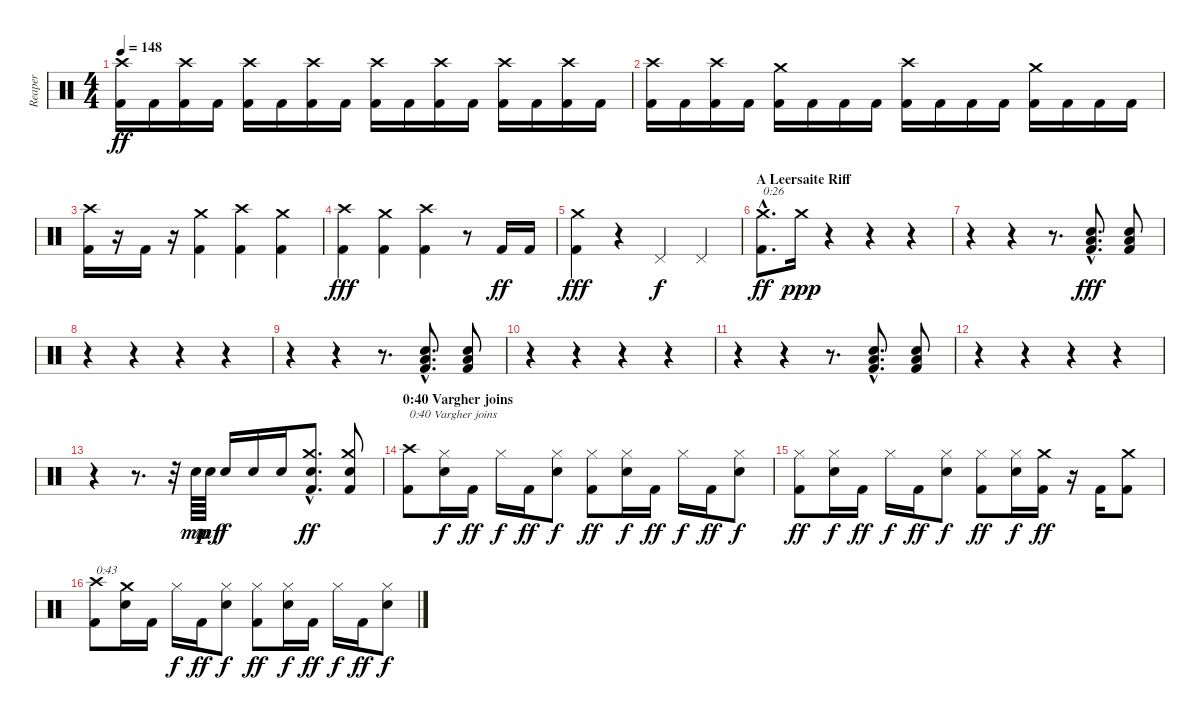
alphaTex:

\track ("Reaper" "Reaper") {instrument percussion}
\staff {score}
\articulation defaults
\ts (4 4)
\tempo 148
\clef neutral
\ks c
("Kick (hit) 2" "Crash high (hit)").16{dy ff} "Kick (hit) 2".16 ("Kick (hit) 2" "Crash high (hit)").16 "Kick (hit) 2".16 ("Kick (hit) 2" "Crash high (hit)").16{volume 13} "Kick (hit) 2".16 ("Kick (hit) 2" "Crash high (hit)").16 "Kick (hit) 2".16 ("Kick (hit) 2" "Crash high (hit)").16 "Kick (hit) 2".16 ("Kick (hit) 2" "Crash high (hit)").16 "Kick (hit) 2".16 ("Kick (hit) 2" "Crash high (hit)").16 "Kick (hit) 2".16 ("Kick (hit) 2" "Crash high (hit)").16 "Kick (hit) 2".16 |
("Kick (hit) 2" "Crash high (hit)").16 "Kick (hit) 2".16 ("Kick (hit) 2" "Crash high (hit)").16 "Kick (hit) 2".16 ("Kick (hit) 2" "Crash medium (hit)").16 "Kick (hit) 2".16 "Kick (hit) 2".16 "Kick (hit) 2".16 ("Kick (hit) 2" "Crash high (hit)").16 "Kick (hit) 2".16 "Kick (hit) 2".16 "Kick (hit) 2".16 ("Kick (hit) 2" "Crash medium (hit)").16 "Kick (hit) 2".16 "Kick (hit) 2".16 "Kick (hit) 2".16 |
("Kick (hit) 2" "Crash high (hit)").16 r.16 "Kick (hit) 2".16 r.16 ("Kick (hit) 2" "Crash medium (hit)").4 ("Kick (hit) 2" "Crash high (hit)").4 ("Kick (hit) 2" "Crash medium (hit)").4 |
("Kick (hit) 2" "Crash high (hit)").4{dy fff} ("Kick (hit) 2" "Crash medium (hit)").4 ("Kick (hit) 2" "Crash high (hit)").4 r.8 "Kick (hit) 2".16{dy ff} "Kick (hit) 2".16 |
("Kick (hit) 2" "Crash medium (hit)").4{dy fff} r.4 "Pedal Hi-Hat (hit)".4{dy f} "Pedal Hi-Hat (hit)".4 |
\section ("" "A Leersaite Riff ")
("Kick (hit) 2"{hac} "Crash medium (hit)"{hac}).8{d txt "0:26" dy ff} "Crash medium (hit)".16{dy ppp} r.4 r.4 r.4 |
r.4 r.4 r.8{d} ("Kick (hit) 2"{hac} "Low Tom (hit)"{hac} "Electric Snare (hit)"{hac}).8{d dy fff} ("Kick (hit) 2" "Low Tom (hit)" "Electric Snare (hit)").8 |
r.4 r.4 r.4 r.4 |
r.4 r.4 r.8{d} ("Kick (hit) 2"{hac} "Low Tom (hit)"{hac} "Electric Snare (hit)"{hac}).8{d} ("Kick (hit) 2" "Low Tom (hit)" "Electric Snare (hit)").8 |
r.4 r.4 r.4 r.4 |
r.4 r.4 r.8{d} ("Kick (hit) 2"{hac} "Low Tom (hit)"{hac} "Electric Snare (hit)"{hac}).8{d} ("Kick (hit) 2" "Low Tom (hit)" "Electric Snare (hit)").8 |
r.4 r.4 r.4 r.4 |
r.4 r.8{d} r.32 "Electric Snare (hit)".64{dy mp} "Electric Snare (hit)".64{dy mf} "Electric Snare (hit)".16{dy f} "Electric Snare (hit)".16 "Electric Snare (hit)".16 ("Kick (hit) 2"{hac} "Electric Snare (hit)"{hac} "Crash medium (hit)"{hac}).8{d dy ff} ("Kick (hit) 2" "Electric Snare (hit)" "Crash medium (hit)").8 |
\section ("" "0:40 Vargher joins")
("Kick (hit) 2" "Crash high (hit)").8{txt "0:40 Vargher joins"} ("Electric Snare (hit)" "Hi-Hat (closed)").16{dy f} "Kick (hit) 2".16{dy ff} "Hi-Hat (closed)".16{dy f} "Kick (hit) 2".16{dy ff} ("Electric Snare (hit)" "Hi-Hat (closed)").8{dy f} ("Kick (hit) 2" "Hi-Hat (closed)").8{dy ff} ("Electric Snare (hit)" "Hi-Hat (closed)").16{dy f} "Kick (hit) 2".16{dy ff} "Hi-Hat (closed)".16{dy f} "Kick (hit) 2".16{dy ff} ("Electric Snare (hit)" "Hi-Hat (closed)").8{dy f} |
("Kick (hit) 2" "Hi-Hat (closed)").8{dy ff} ("Electric Snare (hit)" "Hi-Hat (closed)").16{dy f} "Kick (hit) 2".16{dy ff} "Hi-Hat (closed)".16{dy f} "Kick (hit) 2".16{dy ff} ("Electric Snare (hit)" "Hi-Hat (closed)").8{dy f} ("Kick (hit) 2" "Hi-Hat (closed)").8{dy ff} ("Electric Snare (hit)" "Hi-Hat (closed)").16{dy f} ("Kick (hit) 2" "Crash medium (hit)").16{dy ff} r.16 "Kick (hit) 2".16 ("Kick (hit) 2" "Crash medium (hit)").8 |
("Kick (hit) 2" "Crash high (hit)").8{txt "0:43"} ("Electric Snare (hit)" "Crash medium (hit)").16 "Kick (hit) 2".16 "Hi-Hat (closed)".16{dy f} "Kick (hit) 2".16{dy ff} ("Electric Snare (hit)" "Hi-Hat (closed)").8{dy f} ("Kick (hit) 2" "Hi-Hat (closed)").8{dy ff} ("Electric Snare (hit)" "Hi-Hat (closed)").16{dy f} "Kick (hit) 2".16{dy ff} "Hi-Hat (closed)".16{dy f} "Kick (hit) 2".16{dy ff} ("Electric Snare (hit)" "Hi-Hat (closed)").8{dy f}
